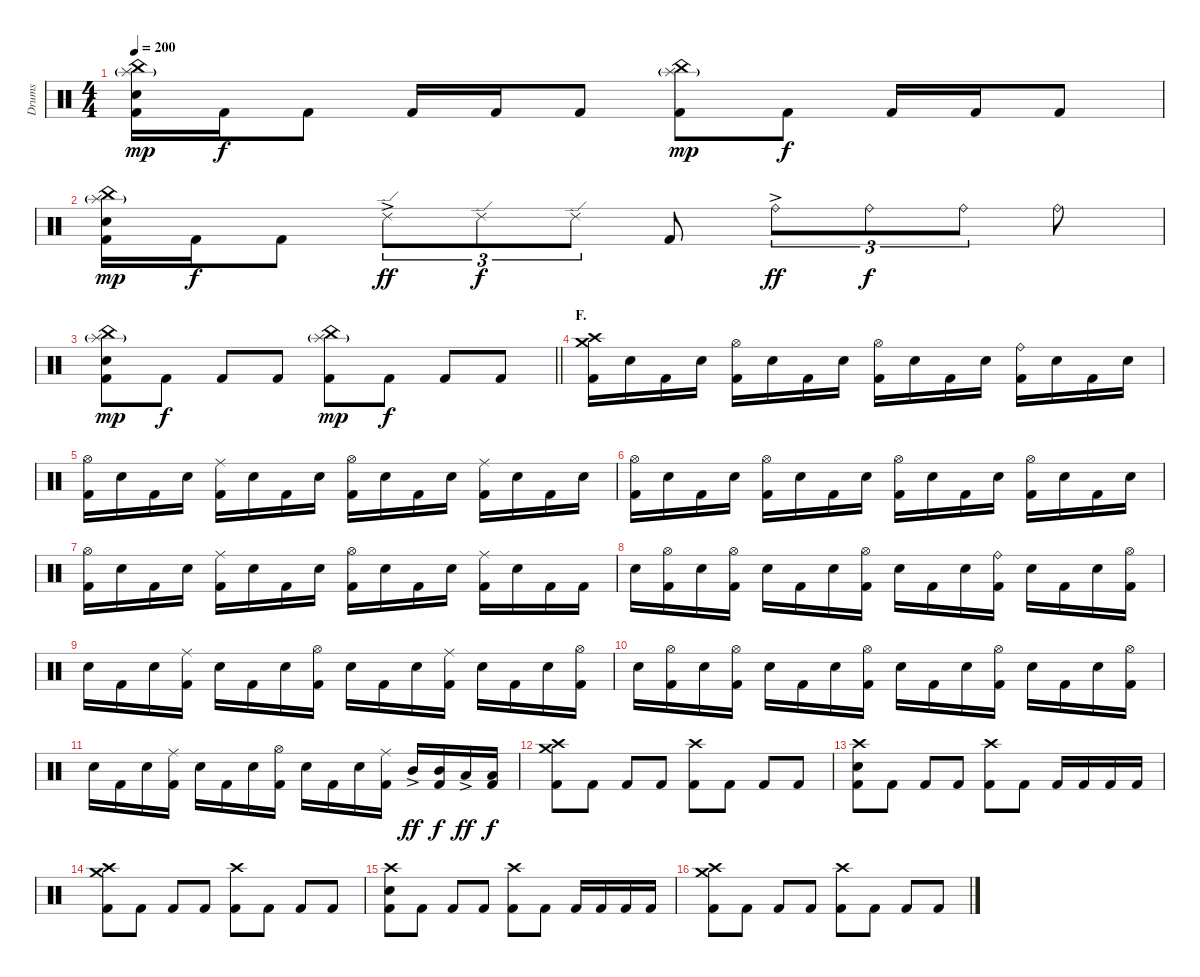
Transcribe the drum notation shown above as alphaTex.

\track ("Drums" "Drums") {instrument percussion}
\staff {score}
\articulation defaults
\ts (4 4)
\tempo 200
\clef neutral
\ks c
("China (hit)" "Splash (hit)"{g} "Electric Snare (hit)" "Kick (hit) 2").16{dy mp} "Kick (hit) 2".16{dy f} "Kick (hit) 2".8 "Kick (hit) 2".16 "Kick (hit) 2".16 "Kick (hit) 2".8 ("China (hit)" "Splash (hit)"{g} "Kick (hit) 2").8{dy mp} "Kick (hit) 2".8{dy f} "Kick (hit) 2".16 "Kick (hit) 2".16 "Kick (hit) 2".8 |
("China (hit)" "Splash (hit)"{g} "Electric Snare (hit)" "Kick (hit) 2").16{dy mp} "Kick (hit) 2".16{dy f} "Kick (hit) 2".8 "Ride (edge) 2"{ac}.8{tu (3 2) dy ff} "Ride (edge) 2".8{tu (3 2) dy f} "Ride (edge) 2".8{tu (3 2)} "Kick (hit) 2".8 "Ride (bell)"{ac}.8{tu (3 2) dy ff} "Ride (bell)".8{tu (3 2) dy f} "Ride (bell)".8{tu (3 2)} "Ride (bell)".8 |
\barLineRight lightlight
("China (hit)" "Splash (hit)"{g} "Electric Snare (hit)" "Kick (hit) 2").8{dy mp} "Kick (hit) 2".8{dy f} "Kick (hit) 2".8 "Kick (hit) 2".8 ("China (hit)" "Splash (hit)"{g} "Kick (hit) 2").8{dy mp} "Kick (hit) 2".8{dy f} "Kick (hit) 2".8 "Kick (hit) 2".8 |
\section ("" "F.")
("Crash medium (hit)" "Crash high (hit)" "Kick (hit) 2").16 "Electric Snare (hit)".16 "Kick (hit) 2".16 "Electric Snare (hit)".16 ("Hi-Hat (open)" "Kick (hit) 2").16 "Electric Snare (hit)".16 "Kick (hit) 2".16 "Electric Snare (hit)".16 ("Hi-Hat (open)" "Kick (hit) 2").16 "Electric Snare (hit)".16 "Kick (hit) 2".16 "Electric Snare (hit)".16 ("Ride (bell)" "Kick (hit) 2").16 "Electric Snare (hit)".16 "Kick (hit) 2".16 "Electric Snare (hit)".16 |
("Hi-Hat (open)" "Kick (hit) 2").16 "Electric Snare (hit)".16 "Kick (hit) 2".16 "Electric Snare (hit)".16 ("Ride (middle)" "Kick (hit) 2").16 "Electric Snare (hit)".16 "Kick (hit) 2".16 "Electric Snare (hit)".16 ("Hi-Hat (open)" "Kick (hit) 2").16 "Electric Snare (hit)".16 "Kick (hit) 2".16 "Electric Snare (hit)".16 ("Ride (middle)" "Kick (hit) 2").16 "Electric Snare (hit)".16 "Kick (hit) 2".16 "Electric Snare (hit)".16 |
("Hi-Hat (open)" "Kick (hit) 2").16 "Electric Snare (hit)".16 "Kick (hit) 2".16 "Electric Snare (hit)".16 ("Hi-Hat (open)" "Kick (hit) 2").16 "Electric Snare (hit)".16 "Kick (hit) 2".16 "Electric Snare (hit)".16 ("Hi-Hat (open)" "Kick (hit) 2").16 "Electric Snare (hit)".16 "Kick (hit) 2".16 "Electric Snare (hit)".16 ("Hi-Hat (open)" "Kick (hit) 2").16 "Electric Snare (hit)".16 "Kick (hit) 2".16 "Electric Snare (hit)".16 |
("Hi-Hat (open)" "Kick (hit) 2").16 "Electric Snare (hit)".16 "Kick (hit) 2".16 "Electric Snare (hit)".16 ("Ride (middle)" "Kick (hit) 2").16 "Electric Snare (hit)".16 "Kick (hit) 2".16 "Electric Snare (hit)".16 ("Hi-Hat (open)" "Kick (hit) 2").16 "Electric Snare (hit)".16 "Kick (hit) 2".16 "Electric Snare (hit)".16 ("Ride (middle)" "Kick (hit) 2").16 "Electric Snare (hit)".16 "Kick (hit) 2".16 "Kick (hit) 2".16 |
"Electric Snare (hit)".16 ("Hi-Hat (open)" "Kick (hit) 2").16 "Electric Snare (hit)".16 ("Hi-Hat (open)" "Kick (hit) 2").16 "Electric Snare (hit)".16 "Kick (hit) 2".16 "Electric Snare (hit)".16 ("Hi-Hat (open)" "Kick (hit) 2").16 "Electric Snare (hit)".16 "Kick (hit) 2".16 "Electric Snare (hit)".16 ("Ride (bell)" "Kick (hit) 2").16 "Electric Snare (hit)".16 "Kick (hit) 2".16 "Electric Snare (hit)".16 ("Hi-Hat (open)" "Kick (hit) 2").16 |
"Electric Snare (hit)".16 "Kick (hit) 2".16 "Electric Snare (hit)".16 ("Ride (middle)" "Kick (hit) 2").16 "Electric Snare (hit)".16 "Kick (hit) 2".16 "Electric Snare (hit)".16 ("Hi-Hat (open)" "Kick (hit) 2").16 "Electric Snare (hit)".16 "Kick (hit) 2".16 "Electric Snare (hit)".16 ("Ride (middle)" "Kick (hit) 2").16 "Electric Snare (hit)".16 "Kick (hit) 2".16 "Electric Snare (hit)".16 ("Hi-Hat (open)" "Kick (hit) 2").16 |
"Electric Snare (hit)".16 ("Hi-Hat (open)" "Kick (hit) 2").16 "Electric Snare (hit)".16 ("Hi-Hat (open)" "Kick (hit) 2").16 "Electric Snare (hit)".16 "Kick (hit) 2".16 "Electric Snare (hit)".16 ("Hi-Hat (open)" "Kick (hit) 2").16 "Electric Snare (hit)".16 "Kick (hit) 2".16 "Electric Snare (hit)".16 ("Hi-Hat (open)" "Kick (hit) 2").16 "Electric Snare (hit)".16 "Kick (hit) 2".16 "Electric Snare (hit)".16 ("Hi-Hat (open)" "Kick (hit) 2").16 |
"Electric Snare (hit)".16 "Kick (hit) 2".16 "Electric Snare (hit)".16 ("Ride (middle)" "Kick (hit) 2").16 "Electric Snare (hit)".16 "Kick (hit) 2".16 "Electric Snare (hit)".16 ("Hi-Hat (open)" "Kick (hit) 2").16 "Electric Snare (hit)".16 "Kick (hit) 2".16 "Electric Snare (hit)".16 ("Ride (middle)" "Kick (hit) 2").16 "Mid Tom (hit)"{ac}.16{dy ff} ("Mid Tom (hit)" "Kick (hit) 2").16{dy f} "Low Tom (hit)"{ac}.16{dy ff} ("Low Tom (hit)" "Kick (hit) 2").16{dy f} |
("Crash medium (hit)" "Crash high (hit)" "Kick (hit) 2").8 "Kick (hit) 2".8 "Kick (hit) 2".8 "Kick (hit) 2".8 ("Crash high (hit)" "Kick (hit) 2").8 "Kick (hit) 2".8 "Kick (hit) 2".8 "Kick (hit) 2".8 |
("Crash high (hit)" "Electric Snare (hit)" "Kick (hit) 2").8 "Kick (hit) 2".8 "Kick (hit) 2".8 "Kick (hit) 2".8 ("Crash high (hit)" "Kick (hit) 2").8 "Kick (hit) 2".8 "Kick (hit) 2".16 "Kick (hit) 2".16 "Kick (hit) 2".16 "Kick (hit) 2".16 |
("Crash medium (hit)" "Crash high (hit)" "Kick (hit) 2").8 "Kick (hit) 2".8 "Kick (hit) 2".8 "Kick (hit) 2".8 ("Crash high (hit)" "Kick (hit) 2").8 "Kick (hit) 2".8 "Kick (hit) 2".8 "Kick (hit) 2".8 |
("Crash high (hit)" "Electric Snare (hit)" "Kick (hit) 2").8 "Kick (hit) 2".8 "Kick (hit) 2".8 "Kick (hit) 2".8 ("Crash high (hit)" "Kick (hit) 2").8 "Kick (hit) 2".8 "Kick (hit) 2".16 "Kick (hit) 2".16 "Kick (hit) 2".16 "Kick (hit) 2".16 |
("Crash medium (hit)" "Crash high (hit)" "Kick (hit) 2").8 "Kick (hit) 2".8 "Kick (hit) 2".8 "Kick (hit) 2".8 ("Crash high (hit)" "Kick (hit) 2").8 "Kick (hit) 2".8 "Kick (hit) 2".8 "Kick (hit) 2".8
